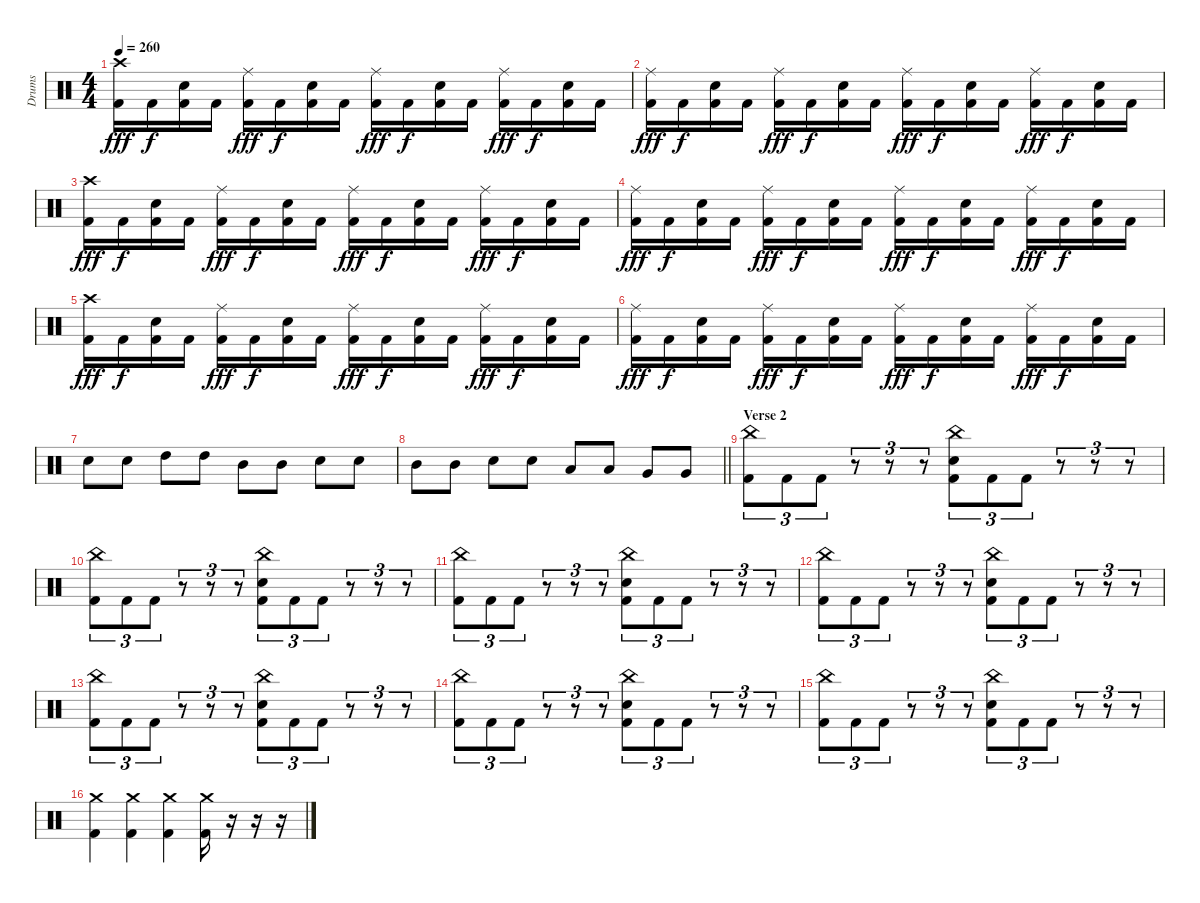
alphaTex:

\track ("Drums" "Drums") {instrument percussion}
\staff {score}
\articulation defaults
\ts (4 4)
\tempo 260
\clef neutral
\ks c
("Crash high (hit)" "Kick (hit) 2").16{dy fff} "Kick (hit) 2".16{dy f} ("Electric Snare (hit)" "Kick (hit) 2").16 "Kick (hit) 2".16 ("Ride (middle)" "Kick (hit) 2").16{dy fff} "Kick (hit) 2".16{dy f} ("Electric Snare (hit)" "Kick (hit) 2").16 "Kick (hit) 2".16 ("Ride (middle)" "Kick (hit) 2").16{dy fff} "Kick (hit) 2".16{dy f} ("Electric Snare (hit)" "Kick (hit) 2").16 "Kick (hit) 2".16 ("Ride (middle)" "Kick (hit) 2").16{dy fff} "Kick (hit) 2".16{dy f} ("Electric Snare (hit)" "Kick (hit) 2").16 "Kick (hit) 2".16 |
("Ride (middle)" "Kick (hit) 2").16{dy fff} "Kick (hit) 2".16{dy f} ("Electric Snare (hit)" "Kick (hit) 2").16 "Kick (hit) 2".16 ("Ride (middle)" "Kick (hit) 2").16{dy fff} "Kick (hit) 2".16{dy f} ("Electric Snare (hit)" "Kick (hit) 2").16 "Kick (hit) 2".16 ("Ride (middle)" "Kick (hit) 2").16{dy fff} "Kick (hit) 2".16{dy f} ("Electric Snare (hit)" "Kick (hit) 2").16 "Kick (hit) 2".16 ("Ride (middle)" "Kick (hit) 2").16{dy fff} "Kick (hit) 2".16{dy f} ("Electric Snare (hit)" "Kick (hit) 2").16 "Kick (hit) 2".16 |
("Crash high (hit)" "Kick (hit) 2").16{dy fff} "Kick (hit) 2".16{dy f} ("Electric Snare (hit)" "Kick (hit) 2").16 "Kick (hit) 2".16 ("Ride (middle)" "Kick (hit) 2").16{dy fff} "Kick (hit) 2".16{dy f} ("Electric Snare (hit)" "Kick (hit) 2").16 "Kick (hit) 2".16 ("Ride (middle)" "Kick (hit) 2").16{dy fff} "Kick (hit) 2".16{dy f} ("Electric Snare (hit)" "Kick (hit) 2").16 "Kick (hit) 2".16 ("Ride (middle)" "Kick (hit) 2").16{dy fff} "Kick (hit) 2".16{dy f} ("Electric Snare (hit)" "Kick (hit) 2").16 "Kick (hit) 2".16 |
("Ride (middle)" "Kick (hit) 2").16{dy fff} "Kick (hit) 2".16{dy f} ("Electric Snare (hit)" "Kick (hit) 2").16 "Kick (hit) 2".16 ("Ride (middle)" "Kick (hit) 2").16{dy fff} "Kick (hit) 2".16{dy f} ("Electric Snare (hit)" "Kick (hit) 2").16 "Kick (hit) 2".16 ("Ride (middle)" "Kick (hit) 2").16{dy fff} "Kick (hit) 2".16{dy f} ("Electric Snare (hit)" "Kick (hit) 2").16 "Kick (hit) 2".16 ("Ride (middle)" "Kick (hit) 2").16{dy fff} "Kick (hit) 2".16{dy f} ("Electric Snare (hit)" "Kick (hit) 2").16 "Kick (hit) 2".16 |
("Crash high (hit)" "Kick (hit) 2").16{dy fff} "Kick (hit) 2".16{dy f} ("Electric Snare (hit)" "Kick (hit) 2").16 "Kick (hit) 2".16 ("Ride (middle)" "Kick (hit) 2").16{dy fff} "Kick (hit) 2".16{dy f} ("Electric Snare (hit)" "Kick (hit) 2").16 "Kick (hit) 2".16 ("Ride (middle)" "Kick (hit) 2").16{dy fff} "Kick (hit) 2".16{dy f} ("Electric Snare (hit)" "Kick (hit) 2").16 "Kick (hit) 2".16 ("Ride (middle)" "Kick (hit) 2").16{dy fff} "Kick (hit) 2".16{dy f} ("Electric Snare (hit)" "Kick (hit) 2").16 "Kick (hit) 2".16 |
("Ride (middle)" "Kick (hit) 2").16{dy fff} "Kick (hit) 2".16{dy f} ("Electric Snare (hit)" "Kick (hit) 2").16 "Kick (hit) 2".16 ("Ride (middle)" "Kick (hit) 2").16{dy fff} "Kick (hit) 2".16{dy f} ("Electric Snare (hit)" "Kick (hit) 2").16 "Kick (hit) 2".16 ("Ride (middle)" "Kick (hit) 2").16{dy fff} "Kick (hit) 2".16{dy f} ("Electric Snare (hit)" "Kick (hit) 2").16 "Kick (hit) 2".16 ("Ride (middle)" "Kick (hit) 2").16{dy fff} "Kick (hit) 2".16{dy f} ("Electric Snare (hit)" "Kick (hit) 2").16 "Kick (hit) 2".16 |
"Electric Snare (hit)".8 "Electric Snare (hit)".8 "High Tom (hit)".8 "High Tom (hit)".8 "Mid Tom (hit)".8 "Mid Tom (hit)".8 "Electric Snare (hit)".8 "Electric Snare (hit)".8 |
\barLineRight lightlight "Mid Tom (hit)".8 "Mid Tom (hit)".8 "Electric Snare (hit)".8 "Electric Snare (hit)".8 "Low Tom (hit)".8 "Low Tom (hit)".8 "Very Low Tom (hit)".8 "Very Low Tom (hit)".8
|
\section ("" "Verse 2")
("China (hit)" "Kick (hit) 2").8{tu (3 2)} "Kick (hit) 2".8{tu (3 2)} "Kick (hit) 2".8{tu (3 2)} r.8{tu (3 2)} r.8{tu (3 2)} r.8{tu (3 2)} ("China (hit)" "Electric Snare (hit)" "Kick (hit) 2").8{tu (3 2)} "Kick (hit) 2".8{tu (3 2)} "Kick (hit) 2".8{tu (3 2)} r.8{tu (3 2)} r.8{tu (3 2)} r.8{tu (3 2)} |
("China (hit)" "Kick (hit) 2").8{tu (3 2)} "Kick (hit) 2".8{tu (3 2)} "Kick (hit) 2".8{tu (3 2)} r.8{tu (3 2)} r.8{tu (3 2)} r.8{tu (3 2)} ("China (hit)" "Electric Snare (hit)" "Kick (hit) 2").8{tu (3 2)} "Kick (hit) 2".8{tu (3 2)} "Kick (hit) 2".8{tu (3 2)} r.8{tu (3 2)} r.8{tu (3 2)} r.8{tu (3 2)} |
("China (hit)" "Kick (hit) 2").8{tu (3 2)} "Kick (hit) 2".8{tu (3 2)} "Kick (hit) 2".8{tu (3 2)} r.8{tu (3 2)} r.8{tu (3 2)} r.8{tu (3 2)} ("China (hit)" "Electric Snare (hit)" "Kick (hit) 2").8{tu (3 2)} "Kick (hit) 2".8{tu (3 2)} "Kick (hit) 2".8{tu (3 2)} r.8{tu (3 2)} r.8{tu (3 2)} r.8{tu (3 2)} |
("China (hit)" "Kick (hit) 2").8{tu (3 2)} "Kick (hit) 2".8{tu (3 2)} "Kick (hit) 2".8{tu (3 2)} r.8{tu (3 2)} r.8{tu (3 2)} r.8{tu (3 2)} ("China (hit)" "Electric Snare (hit)" "Kick (hit) 2").8{tu (3 2)} "Kick (hit) 2".8{tu (3 2)} "Kick (hit) 2".8{tu (3 2)} r.8{tu (3 2)} r.8{tu (3 2)} r.8{tu (3 2)} |
("China (hit)" "Kick (hit) 2").8{tu (3 2)} "Kick (hit) 2".8{tu (3 2)} "Kick (hit) 2".8{tu (3 2)} r.8{tu (3 2)} r.8{tu (3 2)} r.8{tu (3 2)} ("China (hit)" "Electric Snare (hit)" "Kick (hit) 2").8{tu (3 2)} "Kick (hit) 2".8{tu (3 2)} "Kick (hit) 2".8{tu (3 2)} r.8{tu (3 2)} r.8{tu (3 2)} r.8{tu (3 2)} |
("China (hit)" "Kick (hit) 2").8{tu (3 2)} "Kick (hit) 2".8{tu (3 2)} "Kick (hit) 2".8{tu (3 2)} r.8{tu (3 2)} r.8{tu (3 2)} r.8{tu (3 2)} ("China (hit)" "Electric Snare (hit)" "Kick (hit) 2").8{tu (3 2)} "Kick (hit) 2".8{tu (3 2)} "Kick (hit) 2".8{tu (3 2)} r.8{tu (3 2)} r.8{tu (3 2)} r.8{tu (3 2)} |
("China (hit)" "Kick (hit) 2").8{tu (3 2)} "Kick (hit) 2".8{tu (3 2)} "Kick (hit) 2".8{tu (3 2)} r.8{tu (3 2)} r.8{tu (3 2)} r.8{tu (3 2)} ("China (hit)" "Electric Snare (hit)" "Kick (hit) 2").8{tu (3 2)} "Kick (hit) 2".8{tu (3 2)} "Kick (hit) 2".8{tu (3 2)} r.8{tu (3 2)} r.8{tu (3 2)} r.8{tu (3 2)} |
("Crash medium (hit)" "Kick (hit) 2").4 ("Crash medium (hit)" "Kick (hit) 2").4 ("Crash medium (hit)" "Kick (hit) 2").4 ("Crash medium (hit)" "Kick (hit) 2").16 r.16 r.16 r.16
